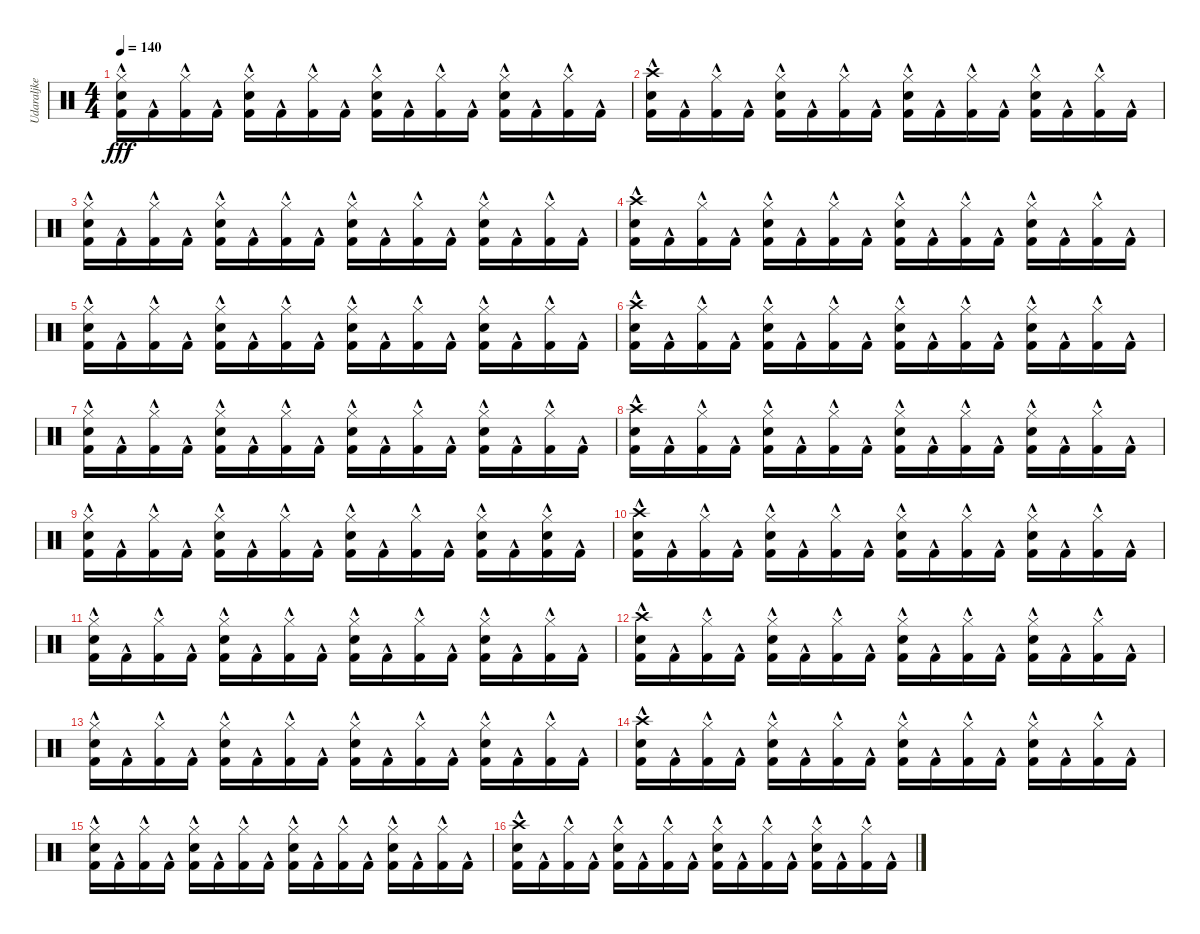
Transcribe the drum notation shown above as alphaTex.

\track ("Udaraljke" "Udaraljke") {instrument percussion}
\staff {score}
\articulation defaults
\ts (4 4)
\tempo 140
\clef neutral
\ks c
("Hi-Hat (closed)" "Snare (hit) 2"{hac} "Kick (hit) 2"{hac}).16{dy fff} "Kick (hit) 2"{hac}.16 ("Hi-Hat (closed)" "Kick (hit) 2"{hac}).16 "Kick (hit) 2"{hac}.16 ("Hi-Hat (closed)" "Snare (hit) 2"{hac} "Kick (hit) 2"{hac}).16 "Kick (hit) 2"{hac}.16 ("Hi-Hat (closed)" "Kick (hit) 2"{hac}).16 "Kick (hit) 2"{hac}.16 ("Hi-Hat (closed)" "Snare (hit) 2"{hac} "Kick (hit) 2"{hac}).16 "Kick (hit) 2"{hac}.16 ("Hi-Hat (closed)" "Kick (hit) 2"{hac}).16 "Kick (hit) 2"{hac}.16 ("Hi-Hat (closed)" "Snare (hit) 2"{hac} "Kick (hit) 2"{hac}).16 "Kick (hit) 2"{hac}.16 ("Hi-Hat (closed)" "Kick (hit) 2"{hac}).16 "Kick (hit) 2"{hac}.16 |
("Crash high (hit)" "Snare (hit) 2"{hac} "Kick (hit) 2"{hac}).16 "Kick (hit) 2"{hac}.16 ("Hi-Hat (closed)" "Kick (hit) 2"{hac}).16 "Kick (hit) 2"{hac}.16 ("Hi-Hat (closed)" "Snare (hit) 2"{hac} "Kick (hit) 2"{hac}).16 "Kick (hit) 2"{hac}.16 ("Hi-Hat (closed)" "Kick (hit) 2"{hac}).16 "Kick (hit) 2"{hac}.16 ("Hi-Hat (closed)" "Snare (hit) 2"{hac} "Kick (hit) 2"{hac}).16 "Kick (hit) 2"{hac}.16 ("Hi-Hat (closed)" "Kick (hit) 2"{hac}).16 "Kick (hit) 2"{hac}.16 ("Hi-Hat (closed)" "Snare (hit) 2"{hac} "Kick (hit) 2"{hac}).16 "Kick (hit) 2"{hac}.16 ("Hi-Hat (closed)" "Kick (hit) 2"{hac}).16 "Kick (hit) 2"{hac}.16 |
("Hi-Hat (closed)" "Snare (hit) 2"{hac} "Kick (hit) 2"{hac}).16 "Kick (hit) 2"{hac}.16 ("Hi-Hat (closed)" "Kick (hit) 2"{hac}).16 "Kick (hit) 2"{hac}.16 ("Hi-Hat (closed)" "Snare (hit) 2"{hac} "Kick (hit) 2"{hac}).16 "Kick (hit) 2"{hac}.16 ("Hi-Hat (closed)" "Kick (hit) 2"{hac}).16 "Kick (hit) 2"{hac}.16 ("Hi-Hat (closed)" "Snare (hit) 2"{hac} "Kick (hit) 2"{hac}).16 "Kick (hit) 2"{hac}.16 ("Hi-Hat (closed)" "Kick (hit) 2"{hac}).16 "Kick (hit) 2"{hac}.16 ("Hi-Hat (closed)" "Snare (hit) 2"{hac} "Kick (hit) 2"{hac}).16 "Kick (hit) 2"{hac}.16 ("Hi-Hat (closed)" "Kick (hit) 2"{hac}).16 "Kick (hit) 2"{hac}.16 |
("Crash high (hit)" "Snare (hit) 2"{hac} "Kick (hit) 2"{hac}).16 "Kick (hit) 2"{hac}.16 ("Hi-Hat (closed)" "Kick (hit) 2"{hac}).16 "Kick (hit) 2"{hac}.16 ("Hi-Hat (closed)" "Snare (hit) 2"{hac} "Kick (hit) 2"{hac}).16 "Kick (hit) 2"{hac}.16 ("Hi-Hat (closed)" "Kick (hit) 2"{hac}).16 "Kick (hit) 2"{hac}.16 ("Hi-Hat (closed)" "Snare (hit) 2"{hac} "Kick (hit) 2"{hac}).16 "Kick (hit) 2"{hac}.16 ("Hi-Hat (closed)" "Kick (hit) 2"{hac}).16 "Kick (hit) 2"{hac}.16 ("Hi-Hat (closed)" "Snare (hit) 2"{hac} "Kick (hit) 2"{hac}).16 "Kick (hit) 2"{hac}.16 ("Hi-Hat (closed)" "Kick (hit) 2"{hac}).16 "Kick (hit) 2"{hac}.16 |
("Hi-Hat (closed)" "Snare (hit) 2"{hac} "Kick (hit) 2"{hac}).16 "Kick (hit) 2"{hac}.16 ("Hi-Hat (closed)" "Kick (hit) 2"{hac}).16 "Kick (hit) 2"{hac}.16 ("Hi-Hat (closed)" "Snare (hit) 2"{hac} "Kick (hit) 2"{hac}).16 "Kick (hit) 2"{hac}.16 ("Hi-Hat (closed)" "Kick (hit) 2"{hac}).16 "Kick (hit) 2"{hac}.16 ("Hi-Hat (closed)" "Snare (hit) 2"{hac} "Kick (hit) 2"{hac}).16 "Kick (hit) 2"{hac}.16 ("Hi-Hat (closed)" "Kick (hit) 2"{hac}).16 "Kick (hit) 2"{hac}.16 ("Hi-Hat (closed)" "Snare (hit) 2"{hac} "Kick (hit) 2"{hac}).16 "Kick (hit) 2"{hac}.16 ("Hi-Hat (closed)" "Kick (hit) 2"{hac}).16 "Kick (hit) 2"{hac}.16 |
("Crash high (hit)" "Snare (hit) 2"{hac} "Kick (hit) 2"{hac}).16 "Kick (hit) 2"{hac}.16 ("Hi-Hat (closed)" "Kick (hit) 2"{hac}).16 "Kick (hit) 2"{hac}.16 ("Hi-Hat (closed)" "Snare (hit) 2"{hac} "Kick (hit) 2"{hac}).16 "Kick (hit) 2"{hac}.16 ("Hi-Hat (closed)" "Kick (hit) 2"{hac}).16 "Kick (hit) 2"{hac}.16 ("Hi-Hat (closed)" "Snare (hit) 2"{hac} "Kick (hit) 2"{hac}).16 "Kick (hit) 2"{hac}.16 ("Hi-Hat (closed)" "Kick (hit) 2"{hac}).16 "Kick (hit) 2"{hac}.16 ("Hi-Hat (closed)" "Snare (hit) 2"{hac} "Kick (hit) 2"{hac}).16 "Kick (hit) 2"{hac}.16 ("Hi-Hat (closed)" "Kick (hit) 2"{hac}).16 "Kick (hit) 2"{hac}.16 |
("Hi-Hat (closed)" "Snare (hit) 2"{hac} "Kick (hit) 2"{hac}).16 "Kick (hit) 2"{hac}.16 ("Hi-Hat (closed)" "Kick (hit) 2"{hac}).16 "Kick (hit) 2"{hac}.16 ("Hi-Hat (closed)" "Snare (hit) 2"{hac} "Kick (hit) 2"{hac}).16 "Kick (hit) 2"{hac}.16 ("Hi-Hat (closed)" "Kick (hit) 2"{hac}).16 "Kick (hit) 2"{hac}.16 ("Hi-Hat (closed)" "Snare (hit) 2"{hac} "Kick (hit) 2"{hac}).16 "Kick (hit) 2"{hac}.16 ("Hi-Hat (closed)" "Kick (hit) 2"{hac}).16 "Kick (hit) 2"{hac}.16 ("Hi-Hat (closed)" "Snare (hit) 2"{hac} "Kick (hit) 2"{hac}).16 "Kick (hit) 2"{hac}.16 ("Hi-Hat (closed)" "Kick (hit) 2"{hac}).16 "Kick (hit) 2"{hac}.16 |
("Crash high (hit)" "Snare (hit) 2"{hac} "Kick (hit) 2"{hac}).16 "Kick (hit) 2"{hac}.16 ("Hi-Hat (closed)" "Kick (hit) 2"{hac}).16 "Kick (hit) 2"{hac}.16 ("Hi-Hat (closed)" "Snare (hit) 2"{hac} "Kick (hit) 2"{hac}).16 "Kick (hit) 2"{hac}.16 ("Hi-Hat (closed)" "Kick (hit) 2"{hac}).16 "Kick (hit) 2"{hac}.16 ("Hi-Hat (closed)" "Snare (hit) 2"{hac} "Kick (hit) 2"{hac}).16 "Kick (hit) 2"{hac}.16 ("Hi-Hat (closed)" "Kick (hit) 2"{hac}).16 "Kick (hit) 2"{hac}.16 ("Hi-Hat (closed)" "Snare (hit) 2"{hac} "Kick (hit) 2"{hac}).16 "Kick (hit) 2"{hac}.16 ("Hi-Hat (closed)" "Kick (hit) 2"{hac}).16 "Kick (hit) 2"{hac}.16 |
("Hi-Hat (closed)" "Snare (hit) 2"{hac} "Kick (hit) 2"{hac}).16 "Kick (hit) 2"{hac}.16 ("Hi-Hat (closed)" "Kick (hit) 2"{hac}).16 "Kick (hit) 2"{hac}.16 ("Hi-Hat (closed)" "Snare (hit) 2"{hac} "Kick (hit) 2"{hac}).16 "Kick (hit) 2"{hac}.16 ("Hi-Hat (closed)" "Kick (hit) 2"{hac}).16 "Kick (hit) 2"{hac}.16 ("Hi-Hat (closed)" "Snare (hit) 2"{hac} "Kick (hit) 2"{hac}).16 "Kick (hit) 2"{hac}.16 ("Hi-Hat (closed)" "Kick (hit) 2"{hac}).16 "Kick (hit) 2"{hac}.16 ("Hi-Hat (closed)" "Snare (hit) 2"{hac} "Kick (hit) 2"{hac}).16 "Kick (hit) 2"{hac}.16 ("Hi-Hat (closed)" "Snare (hit) 2"{hac} "Kick (hit) 2"{hac}).16 "Kick (hit) 2"{hac}.16 |
("Crash high (hit)" "Snare (hit) 2"{hac} "Kick (hit) 2"{hac}).16 "Kick (hit) 2"{hac}.16 ("Hi-Hat (closed)" "Kick (hit) 2"{hac}).16 "Kick (hit) 2"{hac}.16 ("Hi-Hat (closed)" "Snare (hit) 2"{hac} "Kick (hit) 2"{hac}).16 "Kick (hit) 2"{hac}.16 ("Hi-Hat (closed)" "Kick (hit) 2"{hac}).16 "Kick (hit) 2"{hac}.16 ("Hi-Hat (closed)" "Snare (hit) 2"{hac} "Kick (hit) 2"{hac}).16 "Kick (hit) 2"{hac}.16 ("Hi-Hat (closed)" "Kick (hit) 2"{hac}).16 "Kick (hit) 2"{hac}.16 ("Hi-Hat (closed)" "Snare (hit) 2"{hac} "Kick (hit) 2"{hac}).16 "Kick (hit) 2"{hac}.16 ("Hi-Hat (closed)" "Kick (hit) 2"{hac}).16 "Kick (hit) 2"{hac}.16 |
("Hi-Hat (closed)" "Snare (hit) 2"{hac} "Kick (hit) 2"{hac}).16 "Kick (hit) 2"{hac}.16 ("Hi-Hat (closed)" "Kick (hit) 2"{hac}).16 "Kick (hit) 2"{hac}.16 ("Hi-Hat (closed)" "Snare (hit) 2"{hac} "Kick (hit) 2"{hac}).16 "Kick (hit) 2"{hac}.16 ("Hi-Hat (closed)" "Kick (hit) 2"{hac}).16 "Kick (hit) 2"{hac}.16 ("Hi-Hat (closed)" "Snare (hit) 2"{hac} "Kick (hit) 2"{hac}).16 "Kick (hit) 2"{hac}.16 ("Hi-Hat (closed)" "Kick (hit) 2"{hac}).16 "Kick (hit) 2"{hac}.16 ("Hi-Hat (closed)" "Snare (hit) 2"{hac} "Kick (hit) 2"{hac}).16 "Kick (hit) 2"{hac}.16 ("Hi-Hat (closed)" "Kick (hit) 2"{hac}).16 "Kick (hit) 2"{hac}.16 |
("Crash high (hit)" "Snare (hit) 2"{hac} "Kick (hit) 2"{hac}).16 "Kick (hit) 2"{hac}.16 ("Hi-Hat (closed)" "Kick (hit) 2"{hac}).16 "Kick (hit) 2"{hac}.16 ("Hi-Hat (closed)" "Snare (hit) 2"{hac} "Kick (hit) 2"{hac}).16 "Kick (hit) 2"{hac}.16 ("Hi-Hat (closed)" "Kick (hit) 2"{hac}).16 "Kick (hit) 2"{hac}.16 ("Hi-Hat (closed)" "Snare (hit) 2"{hac} "Kick (hit) 2"{hac}).16 "Kick (hit) 2"{hac}.16 ("Hi-Hat (closed)" "Kick (hit) 2"{hac}).16 "Kick (hit) 2"{hac}.16 ("Hi-Hat (closed)" "Snare (hit) 2"{hac} "Kick (hit) 2"{hac}).16 "Kick (hit) 2"{hac}.16 ("Hi-Hat (closed)" "Kick (hit) 2"{hac}).16 "Kick (hit) 2"{hac}.16 |
("Hi-Hat (closed)" "Snare (hit) 2"{hac} "Kick (hit) 2"{hac}).16 "Kick (hit) 2"{hac}.16 ("Hi-Hat (closed)" "Kick (hit) 2"{hac}).16 "Kick (hit) 2"{hac}.16 ("Hi-Hat (closed)" "Snare (hit) 2"{hac} "Kick (hit) 2"{hac}).16 "Kick (hit) 2"{hac}.16 ("Hi-Hat (closed)" "Kick (hit) 2"{hac}).16 "Kick (hit) 2"{hac}.16 ("Hi-Hat (closed)" "Snare (hit) 2"{hac} "Kick (hit) 2"{hac}).16 "Kick (hit) 2"{hac}.16 ("Hi-Hat (closed)" "Kick (hit) 2"{hac}).16 "Kick (hit) 2"{hac}.16 ("Hi-Hat (closed)" "Snare (hit) 2"{hac} "Kick (hit) 2"{hac}).16 "Kick (hit) 2"{hac}.16 ("Hi-Hat (closed)" "Kick (hit) 2"{hac}).16 "Kick (hit) 2"{hac}.16 |
("Crash high (hit)" "Snare (hit) 2"{hac} "Kick (hit) 2"{hac}).16 "Kick (hit) 2"{hac}.16 ("Hi-Hat (closed)" "Kick (hit) 2"{hac}).16 "Kick (hit) 2"{hac}.16 ("Hi-Hat (closed)" "Snare (hit) 2"{hac} "Kick (hit) 2"{hac}).16 "Kick (hit) 2"{hac}.16 ("Hi-Hat (closed)" "Kick (hit) 2"{hac}).16 "Kick (hit) 2"{hac}.16 ("Hi-Hat (closed)" "Snare (hit) 2"{hac} "Kick (hit) 2"{hac}).16 "Kick (hit) 2"{hac}.16 ("Hi-Hat (closed)" "Kick (hit) 2"{hac}).16 "Kick (hit) 2"{hac}.16 ("Hi-Hat (closed)" "Snare (hit) 2"{hac} "Kick (hit) 2"{hac}).16 "Kick (hit) 2"{hac}.16 ("Hi-Hat (closed)" "Kick (hit) 2"{hac}).16 "Kick (hit) 2"{hac}.16 |
("Hi-Hat (closed)" "Snare (hit) 2"{hac} "Kick (hit) 2"{hac}).16 "Kick (hit) 2"{hac}.16 ("Hi-Hat (closed)" "Kick (hit) 2"{hac}).16 "Kick (hit) 2"{hac}.16 ("Hi-Hat (closed)" "Snare (hit) 2"{hac} "Kick (hit) 2"{hac}).16 "Kick (hit) 2"{hac}.16 ("Hi-Hat (closed)" "Kick (hit) 2"{hac}).16 "Kick (hit) 2"{hac}.16 ("Hi-Hat (closed)" "Snare (hit) 2"{hac} "Kick (hit) 2"{hac}).16 "Kick (hit) 2"{hac}.16 ("Hi-Hat (closed)" "Kick (hit) 2"{hac}).16 "Kick (hit) 2"{hac}.16 ("Hi-Hat (closed)" "Snare (hit) 2"{hac} "Kick (hit) 2"{hac}).16 "Kick (hit) 2"{hac}.16 ("Hi-Hat (closed)" "Kick (hit) 2"{hac}).16 "Kick (hit) 2"{hac}.16 |
("Crash high (hit)" "Snare (hit) 2"{hac} "Kick (hit) 2"{hac}).16 "Kick (hit) 2"{hac}.16 ("Hi-Hat (closed)" "Kick (hit) 2"{hac}).16 "Kick (hit) 2"{hac}.16 ("Hi-Hat (closed)" "Snare (hit) 2"{hac} "Kick (hit) 2"{hac}).16 "Kick (hit) 2"{hac}.16 ("Hi-Hat (closed)" "Kick (hit) 2"{hac}).16 "Kick (hit) 2"{hac}.16 ("Hi-Hat (closed)" "Snare (hit) 2"{hac} "Kick (hit) 2"{hac}).16 "Kick (hit) 2"{hac}.16 ("Hi-Hat (closed)" "Kick (hit) 2"{hac}).16 "Kick (hit) 2"{hac}.16 ("Hi-Hat (closed)" "Snare (hit) 2"{hac} "Kick (hit) 2"{hac}).16 "Kick (hit) 2"{hac}.16 ("Hi-Hat (closed)" "Kick (hit) 2"{hac}).16 "Kick (hit) 2"{hac}.16
